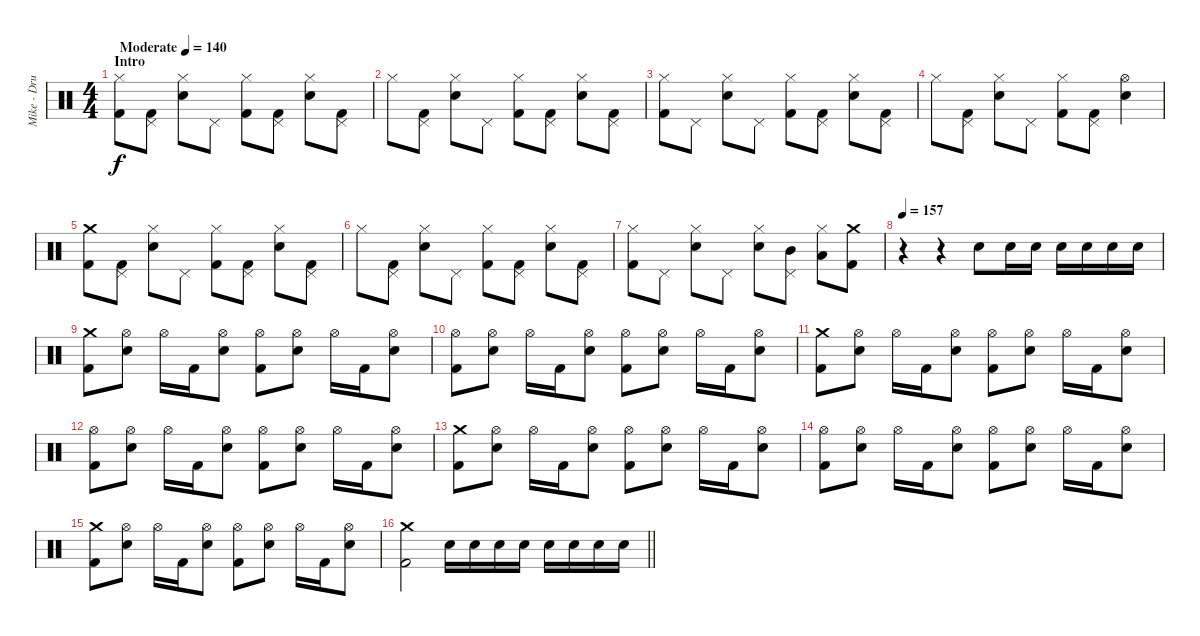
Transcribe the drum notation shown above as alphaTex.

\track ("Mike - Drums" "Mike - Dru") {instrument percussion}
\staff {score}
\articulation defaults
\ts (4 4)
\section ("" "Intro")
\tempo (140 "Moderate")
\clef neutral
\ks c
("Hi-Hat (closed)" "Kick (hit) 2").8{dy f} ("Pedal Hi-Hat (hit)" "Kick (hit) 2").8 ("Hi-Hat (closed)" "Electric Snare (hit)").8 "Pedal Hi-Hat (hit)".8 ("Hi-Hat (closed)" "Kick (hit) 2").8 ("Pedal Hi-Hat (hit)" "Kick (hit) 2").8 ("Hi-Hat (closed)" "Electric Snare (hit)").8 ("Pedal Hi-Hat (hit)" "Kick (hit) 2").8 |
"Hi-Hat (closed)".8 ("Pedal Hi-Hat (hit)" "Kick (hit) 2").8 ("Hi-Hat (closed)" "Electric Snare (hit)").8 "Pedal Hi-Hat (hit)".8 ("Hi-Hat (closed)" "Kick (hit) 2").8 ("Pedal Hi-Hat (hit)" "Kick (hit) 2").8 ("Hi-Hat (closed)" "Electric Snare (hit)").8 ("Pedal Hi-Hat (hit)" "Kick (hit) 2").8 |
("Hi-Hat (closed)" "Kick (hit) 2").8 "Pedal Hi-Hat (hit)".8 ("Hi-Hat (closed)" "Electric Snare (hit)").8 "Pedal Hi-Hat (hit)".8 ("Hi-Hat (closed)" "Kick (hit) 2").8 ("Pedal Hi-Hat (hit)" "Kick (hit) 2").8 ("Hi-Hat (closed)" "Electric Snare (hit)").8 ("Pedal Hi-Hat (hit)" "Kick (hit) 2").8 |
"Hi-Hat (closed)".8 ("Pedal Hi-Hat (hit)" "Kick (hit) 2").8 ("Hi-Hat (closed)" "Electric Snare (hit)").8 "Pedal Hi-Hat (hit)".8 ("Hi-Hat (closed)" "Kick (hit) 2").8 ("Pedal Hi-Hat (hit)" "Kick (hit) 2").8 ("Hi-Hat (open)" "Electric Snare (hit)").4 |
("Crash medium (hit)" "Kick (hit) 2").8 ("Pedal Hi-Hat (hit)" "Kick (hit) 2").8 ("Hi-Hat (closed)" "Electric Snare (hit)").8 "Pedal Hi-Hat (hit)".8 ("Hi-Hat (closed)" "Kick (hit) 2").8 ("Pedal Hi-Hat (hit)" "Kick (hit) 2").8 ("Hi-Hat (closed)" "Electric Snare (hit)").8 ("Pedal Hi-Hat (hit)" "Kick (hit) 2").8 |
"Hi-Hat (closed)".8 ("Pedal Hi-Hat (hit)" "Kick (hit) 2").8 ("Hi-Hat (closed)" "Electric Snare (hit)").8 "Pedal Hi-Hat (hit)".8 ("Hi-Hat (closed)" "Kick (hit) 2").8 ("Pedal Hi-Hat (hit)" "Kick (hit) 2").8 ("Hi-Hat (closed)" "Electric Snare (hit)").8 ("Pedal Hi-Hat (hit)" "Kick (hit) 2").8 |
("Hi-Hat (closed)" "Kick (hit) 2").8 "Pedal Hi-Hat (hit)".8 ("Hi-Hat (closed)" "Electric Snare (hit)").8 "Pedal Hi-Hat (hit)".8 ("Hi-Hat (closed)" "Electric Snare (hit)").8 ("Pedal Hi-Hat (hit)" "Mid Tom (hit)").8 ("Hi-Hat (closed)" "Low Tom (hit)").8 ("Crash medium (hit)" "Kick (hit) 2").8 |
\tempo 157
r.4 r.4 "Electric Snare (hit)".8 "Electric Snare (hit)".16 "Electric Snare (hit)".16 "Electric Snare (hit)".16 "Electric Snare (hit)".16 "Electric Snare (hit)".16 "Electric Snare (hit)".16 |
("Crash medium (hit)" "Kick (hit) 2").8 ("Hi-Hat (open)" "Electric Snare (hit)").8 "Hi-Hat (open)".16 "Kick (hit) 2".16 ("Hi-Hat (open)" "Electric Snare (hit)").8 ("Hi-Hat (open)" "Kick (hit) 2").8 ("Hi-Hat (open)" "Electric Snare (hit)").8 "Hi-Hat (open)".16 "Kick (hit) 2".16 ("Hi-Hat (open)" "Electric Snare (hit)").8 |
("Hi-Hat (open)" "Kick (hit) 2").8 ("Hi-Hat (open)" "Electric Snare (hit)").8 "Hi-Hat (open)".16 "Kick (hit) 2".16 ("Hi-Hat (open)" "Electric Snare (hit)").8 ("Hi-Hat (open)" "Kick (hit) 2").8 ("Hi-Hat (open)" "Electric Snare (hit)").8 "Hi-Hat (open)".16 "Kick (hit) 2".16 ("Hi-Hat (open)" "Electric Snare (hit)").8 |
("Crash medium (hit)" "Kick (hit) 2").8 ("Hi-Hat (open)" "Electric Snare (hit)").8 "Hi-Hat (open)".16 "Kick (hit) 2".16 ("Hi-Hat (open)" "Electric Snare (hit)").8 ("Hi-Hat (open)" "Kick (hit) 2").8 ("Hi-Hat (open)" "Electric Snare (hit)").8 "Hi-Hat (open)".16 "Kick (hit) 2".16 ("Hi-Hat (open)" "Electric Snare (hit)").8 |
("Hi-Hat (open)" "Kick (hit) 2").8 ("Hi-Hat (open)" "Electric Snare (hit)").8 "Hi-Hat (open)".16 "Kick (hit) 2".16 ("Hi-Hat (open)" "Electric Snare (hit)").8 ("Hi-Hat (open)" "Kick (hit) 2").8 ("Hi-Hat (open)" "Electric Snare (hit)").8 "Hi-Hat (open)".16 "Kick (hit) 2".16 ("Hi-Hat (open)" "Electric Snare (hit)").8 |
("Crash medium (hit)" "Kick (hit) 2").8 ("Hi-Hat (open)" "Electric Snare (hit)").8 "Hi-Hat (open)".16 "Kick (hit) 2".16 ("Hi-Hat (open)" "Electric Snare (hit)").8 ("Hi-Hat (open)" "Kick (hit) 2").8 ("Hi-Hat (open)" "Electric Snare (hit)").8 "Hi-Hat (open)".16 "Kick (hit) 2".16 ("Hi-Hat (open)" "Electric Snare (hit)").8 |
("Hi-Hat (open)" "Kick (hit) 2").8 ("Hi-Hat (open)" "Electric Snare (hit)").8 "Hi-Hat (open)".16 "Kick (hit) 2".16 ("Hi-Hat (open)" "Electric Snare (hit)").8 ("Hi-Hat (open)" "Kick (hit) 2").8 ("Hi-Hat (open)" "Electric Snare (hit)").8 "Hi-Hat (open)".16 "Kick (hit) 2".16 ("Hi-Hat (open)" "Electric Snare (hit)").8 |
("Crash medium (hit)" "Kick (hit) 2").8 ("Hi-Hat (open)" "Electric Snare (hit)").8 "Hi-Hat (open)".16 "Kick (hit) 2".16 ("Hi-Hat (open)" "Electric Snare (hit)").8 ("Hi-Hat (open)" "Kick (hit) 2").8 ("Hi-Hat (open)" "Electric Snare (hit)").8 "Hi-Hat (open)".16 "Kick (hit) 2".16 ("Hi-Hat (open)" "Electric Snare (hit)").8 |
\barLineRight lightlight
("Crash medium (hit)" "Kick (hit) 2").2 "Electric Snare (hit)".16 "Electric Snare (hit)".16 "Electric Snare (hit)".16 "Electric Snare (hit)".16 "Electric Snare (hit)".16 "Electric Snare (hit)".16 "Electric Snare (hit)".16 "Electric Snare (hit)".16
